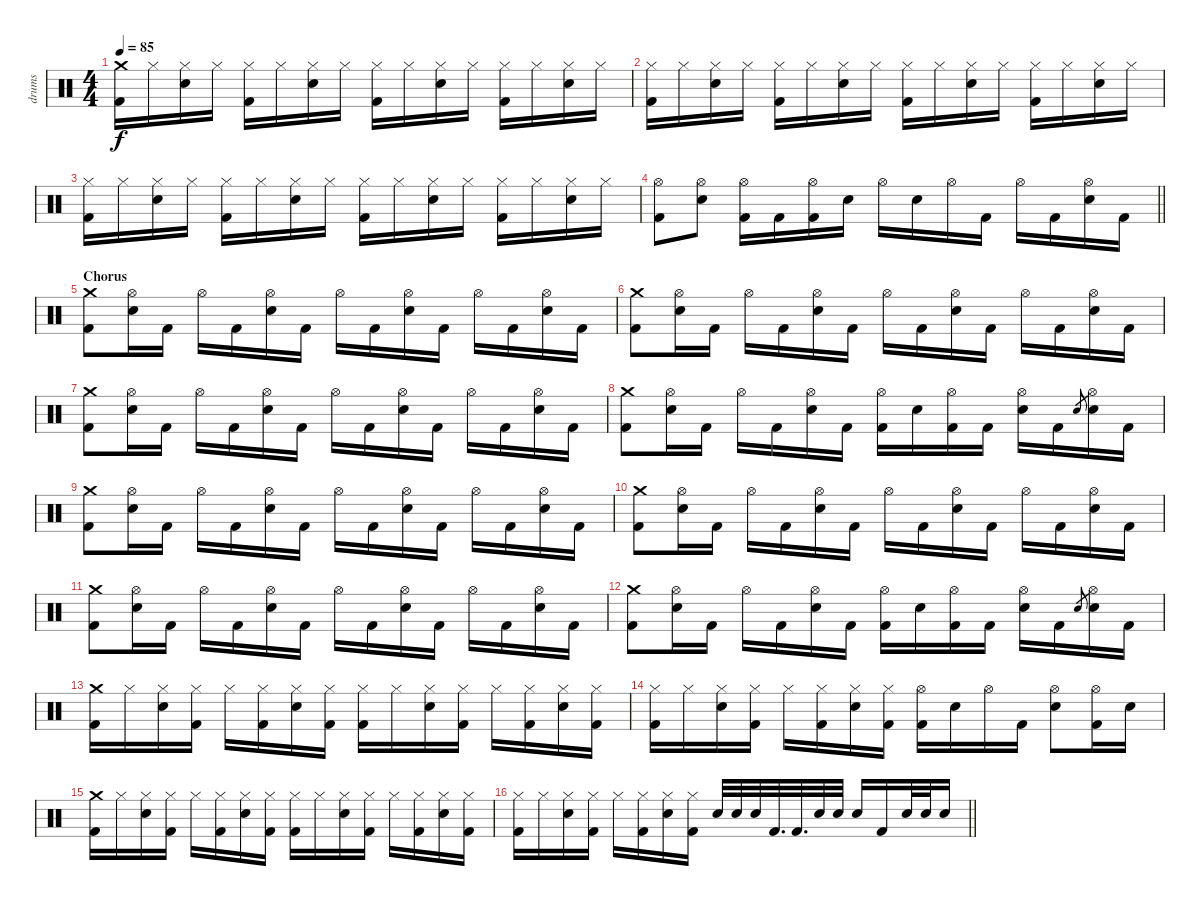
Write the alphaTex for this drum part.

\track ("drums" "drums") {instrument percussion}
\staff {score}
\articulation defaults
\ts (4 4)
\tempo 85
\clef neutral
\ks c
("Crash medium (hit)" "Kick (hit) 2").16{dy f} "Hi-Hat (closed)".16 ("Hi-Hat (closed)" "Electric Snare (hit)").16 "Hi-Hat (closed)".16 ("Hi-Hat (closed)" "Kick (hit) 2").16 "Hi-Hat (closed)".16 ("Hi-Hat (closed)" "Electric Snare (hit)").16 "Hi-Hat (closed)".16 ("Hi-Hat (closed)" "Kick (hit) 2").16 "Hi-Hat (closed)".16 ("Hi-Hat (closed)" "Electric Snare (hit)").16 "Hi-Hat (closed)".16 ("Hi-Hat (closed)" "Kick (hit) 2").16 "Hi-Hat (closed)".16 ("Hi-Hat (closed)" "Electric Snare (hit)").16 "Hi-Hat (closed)".16 |
("Hi-Hat (closed)" "Kick (hit) 2").16 "Hi-Hat (closed)".16 ("Hi-Hat (closed)" "Electric Snare (hit)").16 "Hi-Hat (closed)".16 ("Hi-Hat (closed)" "Kick (hit) 2").16 "Hi-Hat (closed)".16 ("Hi-Hat (closed)" "Electric Snare (hit)").16 "Hi-Hat (closed)".16 ("Hi-Hat (closed)" "Kick (hit) 2").16 "Hi-Hat (closed)".16 ("Hi-Hat (closed)" "Electric Snare (hit)").16 "Hi-Hat (closed)".16 ("Hi-Hat (closed)" "Kick (hit) 2").16 "Hi-Hat (closed)".16 ("Hi-Hat (closed)" "Electric Snare (hit)").16 "Hi-Hat (closed)".16 |
("Hi-Hat (closed)" "Kick (hit) 2").16 "Hi-Hat (closed)".16 ("Hi-Hat (closed)" "Electric Snare (hit)").16 "Hi-Hat (closed)".16 ("Hi-Hat (closed)" "Kick (hit) 2").16 "Hi-Hat (closed)".16 ("Hi-Hat (closed)" "Electric Snare (hit)").16 "Hi-Hat (closed)".16 ("Hi-Hat (closed)" "Kick (hit) 2").16 "Hi-Hat (closed)".16 ("Hi-Hat (closed)" "Electric Snare (hit)").16 "Hi-Hat (closed)".16 ("Hi-Hat (closed)" "Kick (hit) 2").16 "Hi-Hat (closed)".16 ("Hi-Hat (closed)" "Electric Snare (hit)").16 "Hi-Hat (closed)".16 |
\barLineRight lightlight
("Hi-Hat (open)" "Kick (hit) 2").8 ("Hi-Hat (open)" "Electric Snare (hit)").8 ("Hi-Hat (open)" "Kick (hit) 2").16 "Kick (hit) 2".16 ("Hi-Hat (open)" "Kick (hit) 2").16 "Electric Snare (hit)".16 "Hi-Hat (open)".16 "Electric Snare (hit)".16 "Hi-Hat (open)".16 "Kick (hit) 2".16 "Hi-Hat (open)".16 "Kick (hit) 2".16 ("Hi-Hat (open)" "Electric Snare (hit)").16 "Kick (hit) 2".16 |
\section ("" "Chorus")
("Crash medium (hit)" "Kick (hit) 2").8 ("Hi-Hat (open)" "Electric Snare (hit)").16 "Kick (hit) 2".16 "Hi-Hat (open)".16 "Kick (hit) 2".16 ("Hi-Hat (open)" "Electric Snare (hit)").16 "Kick (hit) 2".16 "Hi-Hat (open)".16 "Kick (hit) 2".16 ("Hi-Hat (open)" "Electric Snare (hit)").16 "Kick (hit) 2".16 "Hi-Hat (open)".16 "Kick (hit) 2".16 ("Hi-Hat (open)" "Electric Snare (hit)").16 "Kick (hit) 2".16 |
("Crash medium (hit)" "Kick (hit) 2").8 ("Hi-Hat (open)" "Electric Snare (hit)").16 "Kick (hit) 2".16 "Hi-Hat (open)".16 "Kick (hit) 2".16 ("Hi-Hat (open)" "Electric Snare (hit)").16 "Kick (hit) 2".16 "Hi-Hat (open)".16 "Kick (hit) 2".16 ("Hi-Hat (open)" "Electric Snare (hit)").16 "Kick (hit) 2".16 "Hi-Hat (open)".16 "Kick (hit) 2".16 ("Hi-Hat (open)" "Electric Snare (hit)").16 "Kick (hit) 2".16 |
("Crash medium (hit)" "Kick (hit) 2").8 ("Hi-Hat (open)" "Electric Snare (hit)").16 "Kick (hit) 2".16 "Hi-Hat (open)".16 "Kick (hit) 2".16 ("Hi-Hat (open)" "Electric Snare (hit)").16 "Kick (hit) 2".16 "Hi-Hat (open)".16 "Kick (hit) 2".16 ("Hi-Hat (open)" "Electric Snare (hit)").16 "Kick (hit) 2".16 "Hi-Hat (open)".16 "Kick (hit) 2".16 ("Hi-Hat (open)" "Electric Snare (hit)").16 "Kick (hit) 2".16 |
("Crash medium (hit)" "Kick (hit) 2").8 ("Hi-Hat (open)" "Electric Snare (hit)").16 "Kick (hit) 2".16 "Hi-Hat (open)".16 "Kick (hit) 2".16 ("Hi-Hat (open)" "Electric Snare (hit)").16 "Kick (hit) 2".16 ("Hi-Hat (open)" "Kick (hit) 2").16 "Electric Snare (hit)".16 ("Hi-Hat (open)" "Kick (hit) 2").16 "Kick (hit) 2".16 ("Hi-Hat (open)" "Electric Snare (hit)").16 "Kick (hit) 2".16 "Electric Snare (hit)".8{gr} ("Hi-Hat (open)" "Electric Snare (hit)").16 "Kick (hit) 2".16 |
("Crash medium (hit)" "Kick (hit) 2").8 ("Hi-Hat (open)" "Electric Snare (hit)").16 "Kick (hit) 2".16 "Hi-Hat (open)".16 "Kick (hit) 2".16 ("Hi-Hat (open)" "Electric Snare (hit)").16 "Kick (hit) 2".16 "Hi-Hat (open)".16 "Kick (hit) 2".16 ("Hi-Hat (open)" "Electric Snare (hit)").16 "Kick (hit) 2".16 "Hi-Hat (open)".16 "Kick (hit) 2".16 ("Hi-Hat (open)" "Electric Snare (hit)").16 "Kick (hit) 2".16 |
("Crash medium (hit)" "Kick (hit) 2").8 ("Hi-Hat (open)" "Electric Snare (hit)").16 "Kick (hit) 2".16 "Hi-Hat (open)".16 "Kick (hit) 2".16 ("Hi-Hat (open)" "Electric Snare (hit)").16 "Kick (hit) 2".16 "Hi-Hat (open)".16 "Kick (hit) 2".16 ("Hi-Hat (open)" "Electric Snare (hit)").16 "Kick (hit) 2".16 "Hi-Hat (open)".16 "Kick (hit) 2".16 ("Hi-Hat (open)" "Electric Snare (hit)").16 "Kick (hit) 2".16 |
("Crash medium (hit)" "Kick (hit) 2").8 ("Hi-Hat (open)" "Electric Snare (hit)").16 "Kick (hit) 2".16 "Hi-Hat (open)".16 "Kick (hit) 2".16 ("Hi-Hat (open)" "Electric Snare (hit)").16 "Kick (hit) 2".16 "Hi-Hat (open)".16 "Kick (hit) 2".16 ("Hi-Hat (open)" "Electric Snare (hit)").16 "Kick (hit) 2".16 "Hi-Hat (open)".16 "Kick (hit) 2".16 ("Hi-Hat (open)" "Electric Snare (hit)").16 "Kick (hit) 2".16 |
("Crash medium (hit)" "Kick (hit) 2").8 ("Hi-Hat (open)" "Electric Snare (hit)").16 "Kick (hit) 2".16 "Hi-Hat (open)".16 "Kick (hit) 2".16 ("Hi-Hat (open)" "Electric Snare (hit)").16 "Kick (hit) 2".16 ("Hi-Hat (open)" "Kick (hit) 2").16 "Electric Snare (hit)".16 ("Hi-Hat (open)" "Kick (hit) 2").16 "Kick (hit) 2".16 ("Hi-Hat (open)" "Electric Snare (hit)").16 "Kick (hit) 2".16 "Electric Snare (hit)".8{gr} ("Hi-Hat (open)" "Electric Snare (hit)").16 "Kick (hit) 2".16 |
("Crash medium (hit)" "Kick (hit) 2").16 "Hi-Hat (closed)".16 ("Hi-Hat (closed)" "Electric Snare (hit)").16 ("Hi-Hat (closed)" "Kick (hit) 2").16 "Hi-Hat (closed)".16 ("Hi-Hat (closed)" "Kick (hit) 2").16 ("Hi-Hat (closed)" "Electric Snare (hit)").16 ("Hi-Hat (closed)" "Kick (hit) 2").16 ("Hi-Hat (closed)" "Kick (hit) 2").16 "Hi-Hat (closed)".16 ("Hi-Hat (closed)" "Electric Snare (hit)").16 ("Hi-Hat (closed)" "Kick (hit) 2").16 "Hi-Hat (closed)".16 ("Hi-Hat (closed)" "Kick (hit) 2").16 ("Hi-Hat (closed)" "Electric Snare (hit)").16 ("Hi-Hat (closed)" "Kick (hit) 2").16 |
("Hi-Hat (closed)" "Kick (hit) 2").16 "Hi-Hat (closed)".16 ("Hi-Hat (closed)" "Electric Snare (hit)").16 ("Hi-Hat (closed)" "Kick (hit) 2").16 "Hi-Hat (closed)".16 ("Hi-Hat (closed)" "Kick (hit) 2").16 ("Hi-Hat (closed)" "Electric Snare (hit)").16 ("Hi-Hat (closed)" "Kick (hit) 2").16 ("Hi-Hat (open)" "Kick (hit) 2").16 "Electric Snare (hit)".16 "Hi-Hat (open)".16 "Kick (hit) 2".16 ("Hi-Hat (open)" "Electric Snare (hit)").8 ("Hi-Hat (open)" "Kick (hit) 2").16 "Electric Snare (hit)".16 |
("Crash medium (hit)" "Kick (hit) 2").16 "Hi-Hat (closed)".16 ("Hi-Hat (closed)" "Electric Snare (hit)").16 ("Hi-Hat (closed)" "Kick (hit) 2").16 "Hi-Hat (closed)".16 ("Hi-Hat (closed)" "Kick (hit) 2").16 ("Hi-Hat (closed)" "Electric Snare (hit)").16 ("Hi-Hat (closed)" "Kick (hit) 2").16 ("Hi-Hat (closed)" "Kick (hit) 2").16 "Hi-Hat (closed)".16 ("Hi-Hat (closed)" "Electric Snare (hit)").16 ("Hi-Hat (closed)" "Kick (hit) 2").16 "Hi-Hat (closed)".16 ("Hi-Hat (closed)" "Kick (hit) 2").16 ("Hi-Hat (closed)" "Electric Snare (hit)").16 ("Hi-Hat (closed)" "Kick (hit) 2").16 |
\barLineRight lightlight
("Hi-Hat (closed)" "Kick (hit) 2").16 "Hi-Hat (closed)".16 ("Hi-Hat (closed)" "Electric Snare (hit)").16 ("Hi-Hat (closed)" "Kick (hit) 2").16 "Hi-Hat (closed)".16 ("Hi-Hat (closed)" "Kick (hit) 2").16 ("Hi-Hat (closed)" "Electric Snare (hit)").16 ("Hi-Hat (closed)" "Kick (hit) 2").16 "Electric Snare (hit)".32 "Electric Snare (hit)".32 "Electric Snare (hit)".32 "Kick (hit) 2".32{d} "Kick (hit) 2".32{d} "Electric Snare (hit)".32 "Electric Snare (hit)".32 "Electric Snare (hit)".16 "Kick (hit) 2".16 "Electric Snare (hit)".32 "Electric Snare (hit)".32 "Electric Snare (hit)".16
